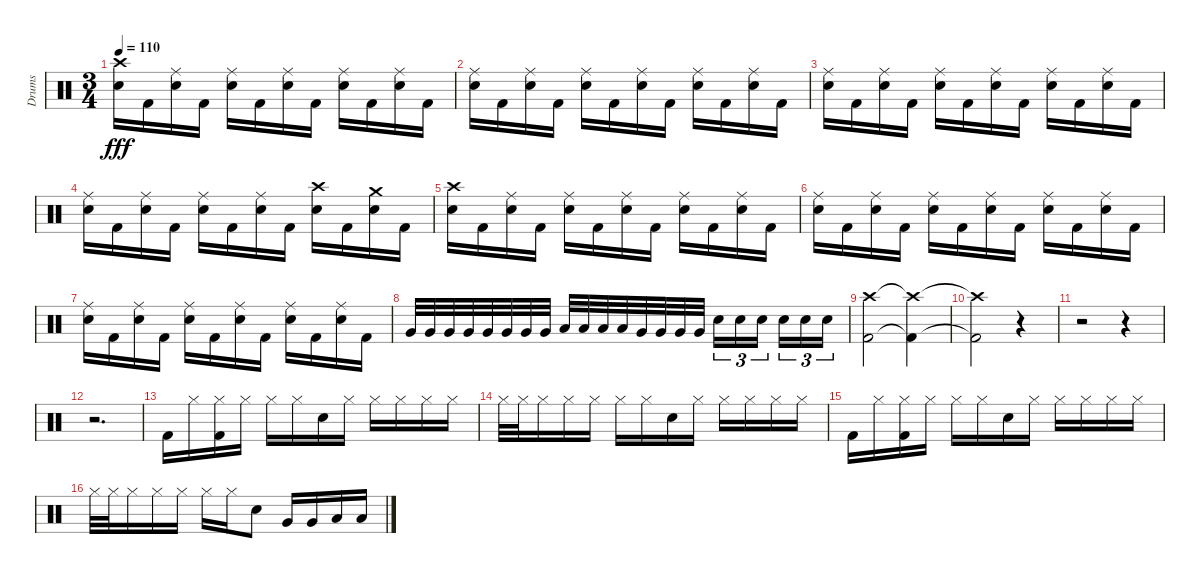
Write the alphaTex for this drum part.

\track ("Drums" "Drums") {instrument percussion}
\staff {score}
\articulation defaults
\ts (3 4)
\tempo 110
\clef neutral
\ks c
("Crash high (hit)" "Electric Snare (hit)").16{dy fff} "Kick (hit) 2".16 ("Ride (middle)" "Electric Snare (hit)").16 "Kick (hit) 2".16 ("Ride (middle)" "Electric Snare (hit)").16 "Kick (hit) 2".16 ("Ride (middle)" "Electric Snare (hit)").16 "Kick (hit) 2".16 ("Ride (middle)" "Electric Snare (hit)").16 "Kick (hit) 2".16 ("Ride (middle)" "Electric Snare (hit)").16 "Kick (hit) 2".16 |
("Ride (middle)" "Electric Snare (hit)").16 "Kick (hit) 2".16 ("Ride (middle)" "Electric Snare (hit)").16 "Kick (hit) 2".16 ("Ride (middle)" "Electric Snare (hit)").16 "Kick (hit) 2".16 ("Ride (middle)" "Electric Snare (hit)").16 "Kick (hit) 2".16 ("Ride (middle)" "Electric Snare (hit)").16 "Kick (hit) 2".16 ("Ride (middle)" "Electric Snare (hit)").16 "Kick (hit) 2".16 |
("Ride (middle)" "Electric Snare (hit)").16 "Kick (hit) 2".16 ("Ride (middle)" "Electric Snare (hit)").16 "Kick (hit) 2".16 ("Ride (middle)" "Electric Snare (hit)").16 "Kick (hit) 2".16 ("Ride (middle)" "Electric Snare (hit)").16 "Kick (hit) 2".16 ("Ride (middle)" "Electric Snare (hit)").16 "Kick (hit) 2".16 ("Ride (middle)" "Electric Snare (hit)").16 "Kick (hit) 2".16 |
("Ride (middle)" "Electric Snare (hit)").16 "Kick (hit) 2".16 ("Ride (middle)" "Electric Snare (hit)").16 "Kick (hit) 2".16 ("Ride (middle)" "Electric Snare (hit)").16 "Kick (hit) 2".16 ("Ride (middle)" "Electric Snare (hit)").16 "Kick (hit) 2".16 ("Crash high (hit)" "Electric Snare (hit)").16 "Kick (hit) 2".16 ("Crash medium (hit)" "Electric Snare (hit)").16 "Kick (hit) 2".16 |
("Crash high (hit)" "Electric Snare (hit)").16 "Kick (hit) 2".16 ("Ride (middle)" "Electric Snare (hit)").16 "Kick (hit) 2".16 ("Ride (middle)" "Electric Snare (hit)").16 "Kick (hit) 2".16 ("Ride (middle)" "Electric Snare (hit)").16 "Kick (hit) 2".16 ("Ride (middle)" "Electric Snare (hit)").16 "Kick (hit) 2".16 ("Ride (middle)" "Electric Snare (hit)").16 "Kick (hit) 2".16 |
("Ride (middle)" "Electric Snare (hit)").16 "Kick (hit) 2".16 ("Ride (middle)" "Electric Snare (hit)").16 "Kick (hit) 2".16 ("Ride (middle)" "Electric Snare (hit)").16 "Kick (hit) 2".16 ("Ride (middle)" "Electric Snare (hit)").16 "Kick (hit) 2".16 ("Ride (middle)" "Electric Snare (hit)").16 "Kick (hit) 2".16 ("Ride (middle)" "Electric Snare (hit)").16 "Kick (hit) 2".16 |
("Ride (middle)" "Electric Snare (hit)").16 "Kick (hit) 2".16 ("Ride (middle)" "Electric Snare (hit)").16 "Kick (hit) 2".16 ("Ride (middle)" "Electric Snare (hit)").16 "Kick (hit) 2".16 ("Ride (middle)" "Electric Snare (hit)").16 "Kick (hit) 2".16 ("Ride (middle)" "Electric Snare (hit)").16 "Kick (hit) 2".16 ("Ride (middle)" "Electric Snare (hit)").16 "Kick (hit) 2".16 |
"Very Low Tom (hit)".32 "Very Low Tom (hit)".32 "Very Low Tom (hit)".32 "Very Low Tom (hit)".32 "Very Low Tom (hit)".32 "Very Low Tom (hit)".32 "Very Low Tom (hit)".32 "Very Low Tom (hit)".32 "Low Tom (hit)".32 "Low Tom (hit)".32 "Low Tom (hit)".32 "Low Tom (hit)".32 "Very Low Tom (hit)".32 "Very Low Tom (hit)".32 "Very Low Tom (hit)".32 "Very Low Tom (hit)".32 "Electric Snare (hit)".16{tu (3 2)} "Electric Snare (hit)".16{tu (3 2)} "Electric Snare (hit)".16{tu (3 2)} "Electric Snare (hit)".16{tu (3 2)} "Electric Snare (hit)".16{tu (3 2)} "Electric Snare (hit)".16{tu (3 2)} |
("Crash high (hit)" "Kick (hit) 2").2 ("Crash high (hit)"{t} "Kick (hit) 2"{t}).4 |
("Crash high (hit)"{t} "Kick (hit) 2"{t}).2 r.4 |
r.2 r.4 |
r.2{d} |
"Kick (hit) 2".16 "Hi-Hat (closed)".16 ("Hi-Hat (closed)" "Kick (hit) 2").16 "Hi-Hat (closed)".16 "Hi-Hat (closed)".16 "Hi-Hat (closed)".16 "Electric Snare (hit)".16 "Hi-Hat (closed)".16 "Hi-Hat (closed)".16 "Hi-Hat (closed)".16 "Hi-Hat (closed)".16 "Hi-Hat (closed)".16 |
"Hi-Hat (closed)".32 "Hi-Hat (closed)".32 "Hi-Hat (closed)".16 "Hi-Hat (closed)".16 "Hi-Hat (closed)".16 "Hi-Hat (closed)".16 "Hi-Hat (closed)".16 "Electric Snare (hit)".16 "Hi-Hat (closed)".16 "Hi-Hat (closed)".16 "Hi-Hat (closed)".16 "Hi-Hat (closed)".16 "Hi-Hat (closed)".16 |
"Kick (hit) 2".16 "Hi-Hat (closed)".16 ("Hi-Hat (closed)" "Kick (hit) 2").16 "Hi-Hat (closed)".16 "Hi-Hat (closed)".16 "Hi-Hat (closed)".16 "Electric Snare (hit)".16 "Hi-Hat (closed)".16 "Hi-Hat (closed)".16 "Hi-Hat (closed)".16 "Hi-Hat (closed)".16 "Hi-Hat (closed)".16 |
"Hi-Hat (closed)".32 "Hi-Hat (closed)".32 "Hi-Hat (closed)".16 "Hi-Hat (closed)".16 "Hi-Hat (closed)".16 "Hi-Hat (closed)".16 "Hi-Hat (closed)".16 "Electric Snare (hit)".8 "Very Low Tom (hit)".16 "Very Low Tom (hit)".16 "Low Tom (hit)".16 "Low Tom (hit)".16
